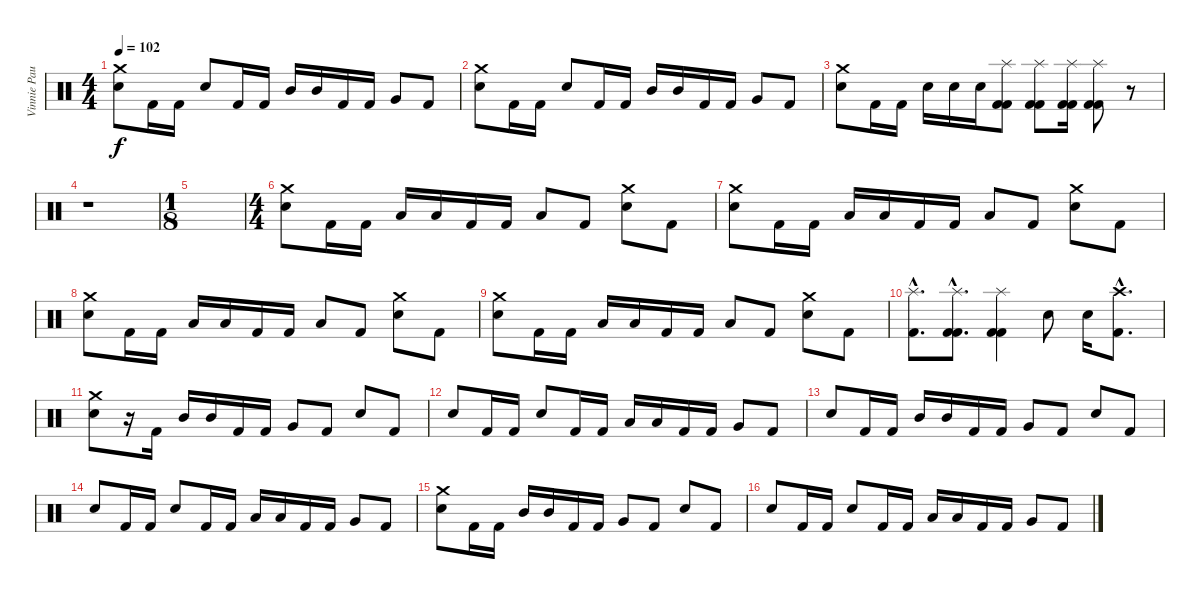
\track ("Vinnie Paul" "Vinnie Pau") {instrument percussion}
\staff {score}
\articulation defaults
\ts (4 4)
\tempo 102
\clef neutral
\ks c
("Crash medium (hit)" "Snare (hit) 2").8{dy f} "Kick (hit) 2".16 "Kick (hit) 2".16 "Snare (hit) 2".8 "Kick (hit) 2".16 "Kick (hit) 2".16 "Mid Tom (hit)".16 "Mid Tom (hit)".16 "Kick (hit) 2".16 "Kick (hit) 2".16 "Very Low Tom (hit)".8 "Kick (hit) 2".8 |
("Crash medium (hit)" "Snare (hit) 2").8 "Kick (hit) 2".16 "Kick (hit) 2".16 "Snare (hit) 2".8 "Kick (hit) 2".16 "Kick (hit) 2".16 "Mid Tom (hit)".16 "Mid Tom (hit)".16 "Kick (hit) 2".16 "Kick (hit) 2".16 "Very Low Tom (hit)".8 "Kick (hit) 2".8 |
("Crash medium (hit)" "Snare (hit) 2").8 "Kick (hit) 2".16 "Kick (hit) 2".16 "Snare (hit) 2".16 "Snare (hit) 2".16 "Snare (hit) 2".16 ("Splash (hit)" "Kick (hit) 2" "Kick (hit) 2").8 ("Splash (hit)" "Kick (hit) 2" "Kick (hit) 2").8 ("Splash (hit)" "Kick (hit) 2" "Kick (hit) 2").16 ("Splash (hit)" "Kick (hit) 2" "Kick (hit) 2").8 r.8 |
r.1 |
\ts (1 8)
|
\ts (4 4)
("Crash medium (hit)" "Snare (hit) 2").8 "Kick (hit) 2".16 "Kick (hit) 2".16 "Low Floor Tom (hit)".16 "Low Floor Tom (hit)".16 "Kick (hit) 2".16 "Kick (hit) 2".16 "Low Floor Tom (hit)".8 "Kick (hit) 2".8 ("Crash medium (hit)" "Snare (hit) 2").8 "Kick (hit) 2".8 |
("Crash medium (hit)" "Snare (hit) 2").8 "Kick (hit) 2".16 "Kick (hit) 2".16 "Low Floor Tom (hit)".16 "Low Floor Tom (hit)".16 "Kick (hit) 2".16 "Kick (hit) 2".16 "Low Floor Tom (hit)".8 "Kick (hit) 2".8 ("Crash medium (hit)" "Snare (hit) 2").8 "Kick (hit) 2".8 |
("Crash medium (hit)" "Snare (hit) 2").8 "Kick (hit) 2".16 "Kick (hit) 2".16 "Low Floor Tom (hit)".16 "Low Floor Tom (hit)".16 "Kick (hit) 2".16 "Kick (hit) 2".16 "Low Floor Tom (hit)".8 "Kick (hit) 2".8 ("Crash medium (hit)" "Snare (hit) 2").8 "Kick (hit) 2".8 |
("Crash medium (hit)" "Snare (hit) 2").8 "Kick (hit) 2".16 "Kick (hit) 2".16 "Low Floor Tom (hit)".16 "Low Floor Tom (hit)".16 "Kick (hit) 2".16 "Kick (hit) 2".16 "Low Floor Tom (hit)".8 "Kick (hit) 2".8 ("Crash medium (hit)" "Snare (hit) 2").8 "Kick (hit) 2".8 |
("Splash (hit)"{hac} "Kick (hit) 2"{hac}).8{d} ("Splash (hit)"{hac} "Kick (hit) 2"{hac} "Kick (hit) 2"{hac}).8{d} ("Splash (hit)" "Kick (hit) 2" "Kick (hit) 2").4 "Snare (hit) 2".8 "Snare (hit) 2".16 ("Crash high (hit)"{hac} "Kick (hit) 2"{hac}).8{d} |
("Crash medium (hit)" "Snare (hit) 2").8 r.16 "Kick (hit) 2".16 "Mid Tom (hit)".16 "Mid Tom (hit)".16 "Kick (hit) 2".16 "Kick (hit) 2".16 "Very Low Tom (hit)".8 "Kick (hit) 2".8 "Snare (hit) 2".8 "Kick (hit) 2".8 |
"Snare (hit) 2".8 "Kick (hit) 2".16 "Kick (hit) 2".16 "Snare (hit) 2".8 "Kick (hit) 2".16 "Kick (hit) 2".16 "Low Tom (hit)".16 "Low Tom (hit)".16 "Kick (hit) 2".16 "Kick (hit) 2".16 "Very Low Tom (hit)".8 "Kick (hit) 2".8 |
"Snare (hit) 2".8 "Kick (hit) 2".16 "Kick (hit) 2".16 "Mid Tom (hit)".16 "Mid Tom (hit)".16 "Kick (hit) 2".16 "Kick (hit) 2".16 "Very Low Tom (hit)".8 "Kick (hit) 2".8 "Snare (hit) 2".8 "Kick (hit) 2".8 |
"Snare (hit) 2".8 "Kick (hit) 2".16 "Kick (hit) 2".16 "Snare (hit) 2".8 "Kick (hit) 2".16 "Kick (hit) 2".16 "Low Tom (hit)".16 "Low Tom (hit)".16 "Kick (hit) 2".16 "Kick (hit) 2".16 "Very Low Tom (hit)".8 "Kick (hit) 2".8 |
("Crash medium (hit)" "Snare (hit) 2").8 "Kick (hit) 2".16 "Kick (hit) 2".16 "Mid Tom (hit)".16 "Mid Tom (hit)".16 "Kick (hit) 2".16 "Kick (hit) 2".16 "Very Low Tom (hit)".8 "Kick (hit) 2".8 "Snare (hit) 2".8 "Kick (hit) 2".8 |
"Snare (hit) 2".8 "Kick (hit) 2".16 "Kick (hit) 2".16 "Snare (hit) 2".8 "Kick (hit) 2".16 "Kick (hit) 2".16 "Low Tom (hit)".16 "Low Tom (hit)".16 "Kick (hit) 2".16 "Kick (hit) 2".16 "Very Low Tom (hit)".8 "Kick (hit) 2".8
